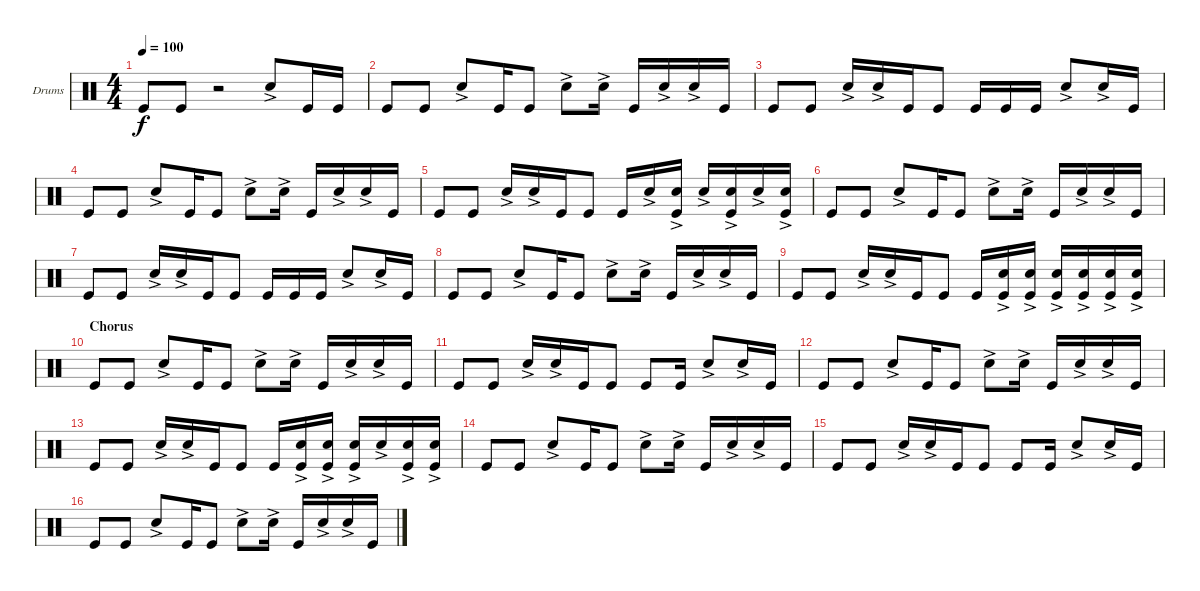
\bracketExtendMode groupsimilarinstruments
\firstSystemTrackNameOrientation horizontal
\otherSystemsTrackNameOrientation horizontal
\track ("Drums rhythm" "Drums") {instrument percussion}
\staff {score}
\articulation defaults
\ts (4 4)
\tempo 100
\clef neutral
\ks c "Kick (hit)".8{dy f} "Kick (hit)".8
r.2 "Snare (hit) 2"{ac}.8 "Kick (hit)".16 "Kick (hit)".16 |
"Kick (hit)".8 "Kick (hit)".8 "Snare (hit) 2"{ac}.8 "Kick (hit)".16 "Kick (hit)".8 "Snare (hit) 2"{ac}.8 "Snare (hit) 2"{ac}.16 "Kick (hit)".16 "Snare (hit) 2"{ac}.16 "Snare (hit) 2"{ac}.16 "Kick (hit)".16 |
"Kick (hit)".8 "Kick (hit)".8 "Snare (hit) 2"{ac}.16 "Snare (hit) 2"{ac}.16 "Kick (hit)".16 "Kick (hit)".8 "Kick (hit)".16 "Kick (hit)".16 "Kick (hit)".16 "Snare (hit) 2"{ac}.8 "Snare (hit) 2"{ac}.16 "Kick (hit)".16 |
"Kick (hit)".8 "Kick (hit)".8 "Snare (hit) 2"{ac}.8 "Kick (hit)".16 "Kick (hit)".8 "Snare (hit) 2"{ac}.8 "Snare (hit) 2"{ac}.16 "Kick (hit)".16 "Snare (hit) 2"{ac}.16 "Snare (hit) 2"{ac}.16 "Kick (hit)".16 |
"Kick (hit)".8 "Kick (hit)".8 "Snare (hit) 2"{ac}.16 "Snare (hit) 2"{ac}.16 "Kick (hit)".16 "Kick (hit)".8 "Kick (hit)".16 "Snare (hit) 2"{ac}.16 ("Snare (hit) 2"{ac} "Kick (hit)").16 "Snare (hit) 2"{ac}.16 ("Snare (hit) 2"{ac} "Kick (hit)").16 "Snare (hit) 2"{ac}.16 ("Snare (hit) 2"{ac} "Kick (hit)").16 |
"Kick (hit)".8 "Kick (hit)".8 "Snare (hit) 2"{ac}.8 "Kick (hit)".16 "Kick (hit)".8 "Snare (hit) 2"{ac}.8 "Snare (hit) 2"{ac}.16 "Kick (hit)".16 "Snare (hit) 2"{ac}.16 "Snare (hit) 2"{ac}.16 "Kick (hit)".16 |
"Kick (hit)".8 "Kick (hit)".8 "Snare (hit) 2"{ac}.16 "Snare (hit) 2"{ac}.16 "Kick (hit)".16 "Kick (hit)".8 "Kick (hit)".16 "Kick (hit)".16 "Kick (hit)".16 "Snare (hit) 2"{ac}.8 "Snare (hit) 2"{ac}.16 "Kick (hit)".16 |
"Kick (hit)".8 "Kick (hit)".8 "Snare (hit) 2"{ac}.8 "Kick (hit)".16 "Kick (hit)".8 "Snare (hit) 2"{ac}.8 "Snare (hit) 2"{ac}.16 "Kick (hit)".16 "Snare (hit) 2"{ac}.16 "Snare (hit) 2"{ac}.16 "Kick (hit)".16 |
"Kick (hit)".8 "Kick (hit)".8 "Snare (hit) 2"{ac}.16 "Snare (hit) 2"{ac}.16 "Kick (hit)".16 "Kick (hit)".8 "Kick (hit)".16 ("Kick (hit)" "Snare (hit) 2"{ac}).16 ("Snare (hit) 2"{ac} "Kick (hit)").16 ("Snare (hit) 2"{ac} "Kick (hit)").16 ("Snare (hit) 2"{ac} "Kick (hit)").16 ("Snare (hit) 2"{ac} "Kick (hit)").16 ("Snare (hit) 2"{ac} "Kick (hit)").16 |
\section ("" "Chorus")
"Kick (hit)".8 "Kick (hit)".8 "Snare (hit) 2"{ac}.8 "Kick (hit)".16 "Kick (hit)".8 "Snare (hit) 2"{ac}.8 "Snare (hit) 2"{ac}.16 "Kick (hit)".16 "Snare (hit) 2"{ac}.16 "Snare (hit) 2"{ac}.16 "Kick (hit)".16 |
"Kick (hit)".8 "Kick (hit)".8 "Snare (hit) 2"{ac}.16 "Snare (hit) 2"{ac}.16 "Kick (hit)".16 "Kick (hit)".8 "Kick (hit)".8 "Kick (hit)".16 "Snare (hit) 2"{ac}.8 "Snare (hit) 2"{ac}.16 "Kick (hit)".16 |
"Kick (hit)".8 "Kick (hit)".8 "Snare (hit) 2"{ac}.8 "Kick (hit)".16 "Kick (hit)".8 "Snare (hit) 2"{ac}.8 "Snare (hit) 2"{ac}.16 "Kick (hit)".16 "Snare (hit) 2"{ac}.16 "Snare (hit) 2"{ac}.16 "Kick (hit)".16 |
"Kick (hit)".8 "Kick (hit)".8 "Snare (hit) 2"{ac}.16 "Snare (hit) 2"{ac}.16 "Kick (hit)".16 "Kick (hit)".8 "Kick (hit)".16 ("Kick (hit)" "Snare (hit) 2"{ac}).16 ("Snare (hit) 2"{ac} "Kick (hit)").16 ("Snare (hit) 2"{ac} "Kick (hit)").16 "Snare (hit) 2"{ac}.16 ("Snare (hit) 2"{ac} "Kick (hit)").16 ("Snare (hit) 2"{ac} "Kick (hit)").16 |
"Kick (hit)".8 "Kick (hit)".8 "Snare (hit) 2"{ac}.8 "Kick (hit)".16 "Kick (hit)".8 "Snare (hit) 2"{ac}.8 "Snare (hit) 2"{ac}.16 "Kick (hit)".16 "Snare (hit) 2"{ac}.16 "Snare (hit) 2"{ac}.16 "Kick (hit)".16 |
"Kick (hit)".8 "Kick (hit)".8 "Snare (hit) 2"{ac}.16 "Snare (hit) 2"{ac}.16 "Kick (hit)".16 "Kick (hit)".8 "Kick (hit)".8 "Kick (hit)".16 "Snare (hit) 2"{ac}.8 "Snare (hit) 2"{ac}.16 "Kick (hit)".16 |
"Kick (hit)".8 "Kick (hit)".8 "Snare (hit) 2"{ac}.8 "Kick (hit)".16 "Kick (hit)".8 "Snare (hit) 2"{ac}.8 "Snare (hit) 2"{ac}.16 "Kick (hit)".16 "Snare (hit) 2"{ac}.16 "Snare (hit) 2"{ac}.16 "Kick (hit)".16
